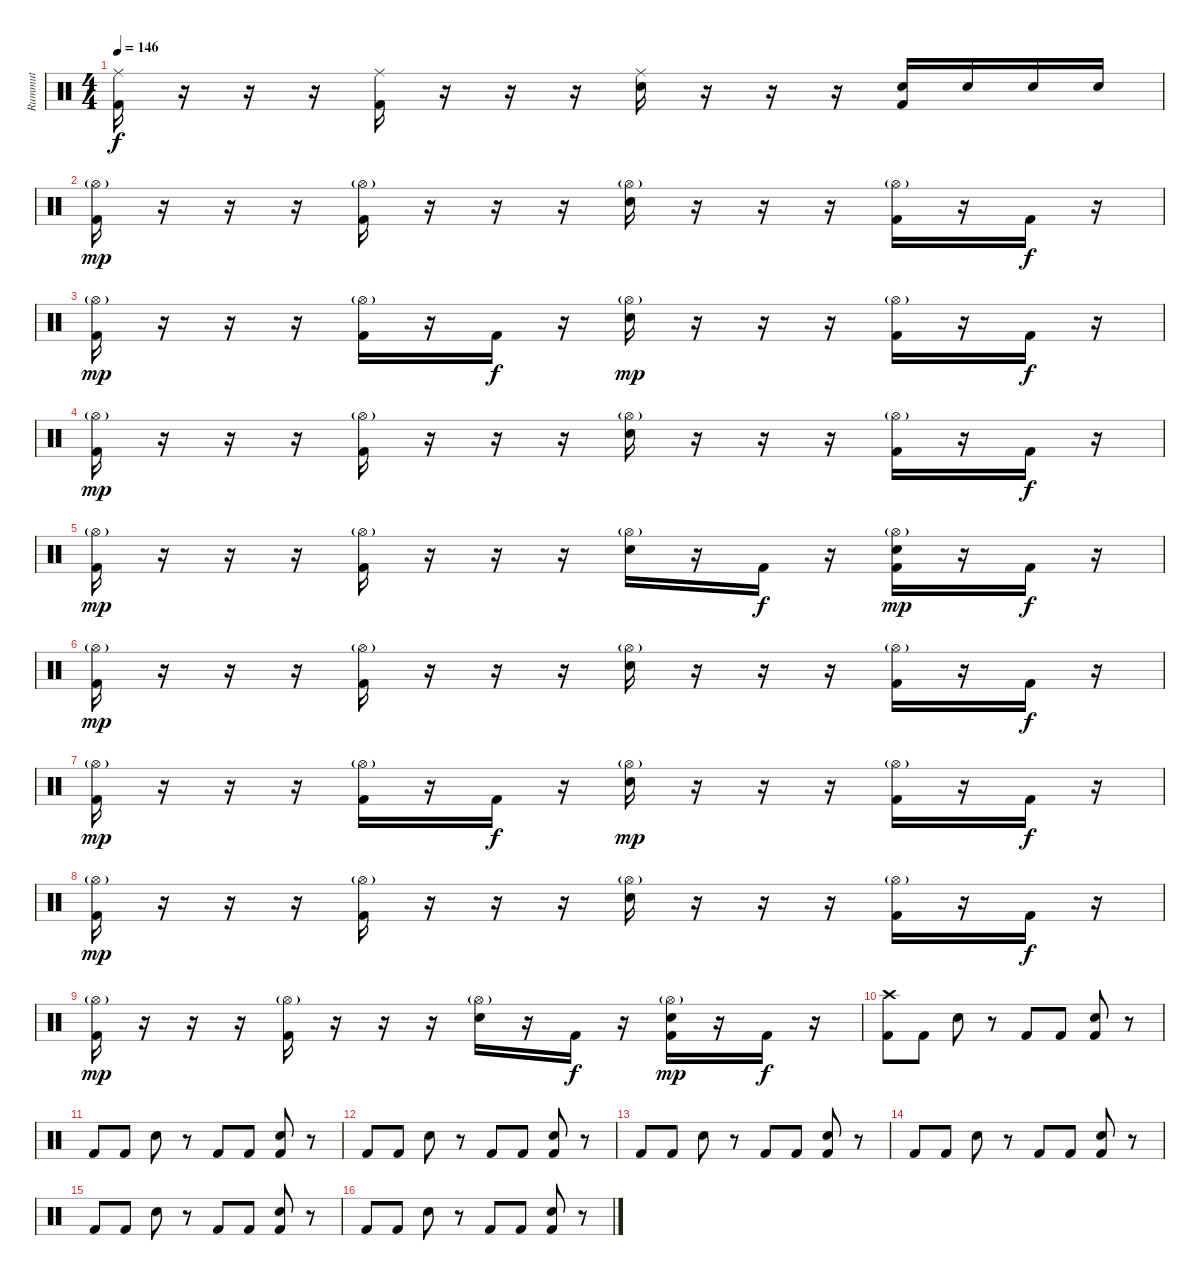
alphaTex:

\track ("Rummut" "Rummut") {instrument percussion}
\staff {score}
\articulation defaults
\ts (4 4)
\tempo 146
\clef neutral
\ks c
("Ride (middle)" "Kick (hit) 2").16{dy f} r.16 r.16 r.16 ("Ride (middle)" "Kick (hit) 2").16 r.16 r.16 r.16 ("Ride (middle)" "Electric Snare (hit)").16 r.16 r.16 r.16 ("Electric Snare (hit)" "Kick (hit) 2").16 "Electric Snare (hit)".16 "Electric Snare (hit)".16 "Electric Snare (hit)".16 |
("Hi-Hat (open)"{g} "Kick (hit) 2").16{dy mp} r.16 r.16 r.16 ("Hi-Hat (open)"{g} "Kick (hit) 2").16 r.16 r.16 r.16 ("Hi-Hat (open)"{g} "Electric Snare (hit)").16 r.16 r.16 r.16 ("Hi-Hat (open)"{g} "Kick (hit) 2").16 r.16 "Kick (hit) 2".16{dy f} r.16 |
("Hi-Hat (open)"{g} "Kick (hit) 2").16{dy mp} r.16 r.16 r.16 ("Hi-Hat (open)"{g} "Kick (hit) 2").16 r.16 "Kick (hit) 2".16{dy f} r.16 ("Hi-Hat (open)"{g} "Electric Snare (hit)").16{dy mp} r.16 r.16 r.16 ("Hi-Hat (open)"{g} "Kick (hit) 2").16 r.16 "Kick (hit) 2".16{dy f} r.16 |
("Hi-Hat (open)"{g} "Kick (hit) 2").16{dy mp} r.16 r.16 r.16 ("Hi-Hat (open)"{g} "Kick (hit) 2").16 r.16 r.16 r.16 ("Hi-Hat (open)"{g} "Electric Snare (hit)").16 r.16 r.16 r.16 ("Hi-Hat (open)"{g} "Kick (hit) 2").16 r.16 "Kick (hit) 2".16{dy f} r.16 |
("Hi-Hat (open)"{g} "Kick (hit) 2").16{dy mp} r.16 r.16 r.16 ("Hi-Hat (open)"{g} "Kick (hit) 2").16 r.16 r.16 r.16 ("Hi-Hat (open)"{g} "Electric Snare (hit)").16 r.16 "Kick (hit) 2".16{dy f} r.16 ("Hi-Hat (open)"{g} "Electric Snare (hit)" "Kick (hit) 2").16{dy mp} r.16 "Kick (hit) 2".16{dy f} r.16 |
("Hi-Hat (open)"{g} "Kick (hit) 2").16{dy mp} r.16 r.16 r.16 ("Hi-Hat (open)"{g} "Kick (hit) 2").16 r.16 r.16 r.16 ("Hi-Hat (open)"{g} "Electric Snare (hit)").16 r.16 r.16 r.16 ("Hi-Hat (open)"{g} "Kick (hit) 2").16 r.16 "Kick (hit) 2".16{dy f} r.16 |
("Hi-Hat (open)"{g} "Kick (hit) 2").16{dy mp} r.16 r.16 r.16 ("Hi-Hat (open)"{g} "Kick (hit) 2").16 r.16 "Kick (hit) 2".16{dy f} r.16 ("Hi-Hat (open)"{g} "Electric Snare (hit)").16{dy mp} r.16 r.16 r.16 ("Hi-Hat (open)"{g} "Kick (hit) 2").16 r.16 "Kick (hit) 2".16{dy f} r.16 |
("Hi-Hat (open)"{g} "Kick (hit) 2").16{dy mp} r.16 r.16 r.16 ("Hi-Hat (open)"{g} "Kick (hit) 2").16 r.16 r.16 r.16 ("Hi-Hat (open)"{g} "Electric Snare (hit)").16 r.16 r.16 r.16 ("Hi-Hat (open)"{g} "Kick (hit) 2").16 r.16 "Kick (hit) 2".16{dy f} r.16 |
("Hi-Hat (open)"{g} "Kick (hit) 2").16{dy mp} r.16 r.16 r.16 ("Hi-Hat (open)"{g} "Kick (hit) 2").16 r.16 r.16 r.16 ("Hi-Hat (open)"{g} "Electric Snare (hit)").16 r.16 "Kick (hit) 2".16{dy f} r.16 ("Hi-Hat (open)"{g} "Electric Snare (hit)" "Kick (hit) 2").16{dy mp} r.16 "Kick (hit) 2".16{dy f} r.16 |
\section ("" "")
("Crash high (hit)" "Kick (hit) 2").8 "Kick (hit) 2".8 "Electric Snare (hit)".8 r.8 "Kick (hit) 2".8 "Kick (hit) 2".8 ("Electric Snare (hit)" "Kick (hit) 2").8 r.8 |
"Kick (hit) 2".8 "Kick (hit) 2".8 "Electric Snare (hit)".8 r.8 "Kick (hit) 2".8 "Kick (hit) 2".8 ("Electric Snare (hit)" "Kick (hit) 2").8 r.8 |
"Kick (hit) 2".8 "Kick (hit) 2".8 "Electric Snare (hit)".8 r.8 "Kick (hit) 2".8 "Kick (hit) 2".8 ("Electric Snare (hit)" "Kick (hit) 2").8 r.8 |
"Kick (hit) 2".8 "Kick (hit) 2".8 "Electric Snare (hit)".8 r.8 "Kick (hit) 2".8 "Kick (hit) 2".8 ("Electric Snare (hit)" "Kick (hit) 2").8 r.8 |
"Kick (hit) 2".8 "Kick (hit) 2".8 "Electric Snare (hit)".8 r.8 "Kick (hit) 2".8 "Kick (hit) 2".8 ("Electric Snare (hit)" "Kick (hit) 2").8 r.8 |
"Kick (hit) 2".8 "Kick (hit) 2".8 "Electric Snare (hit)".8 r.8 "Kick (hit) 2".8 "Kick (hit) 2".8 ("Electric Snare (hit)" "Kick (hit) 2").8 r.8 |
"Kick (hit) 2".8 "Kick (hit) 2".8 "Electric Snare (hit)".8 r.8 "Kick (hit) 2".8 "Kick (hit) 2".8 ("Electric Snare (hit)" "Kick (hit) 2").8 r.8
